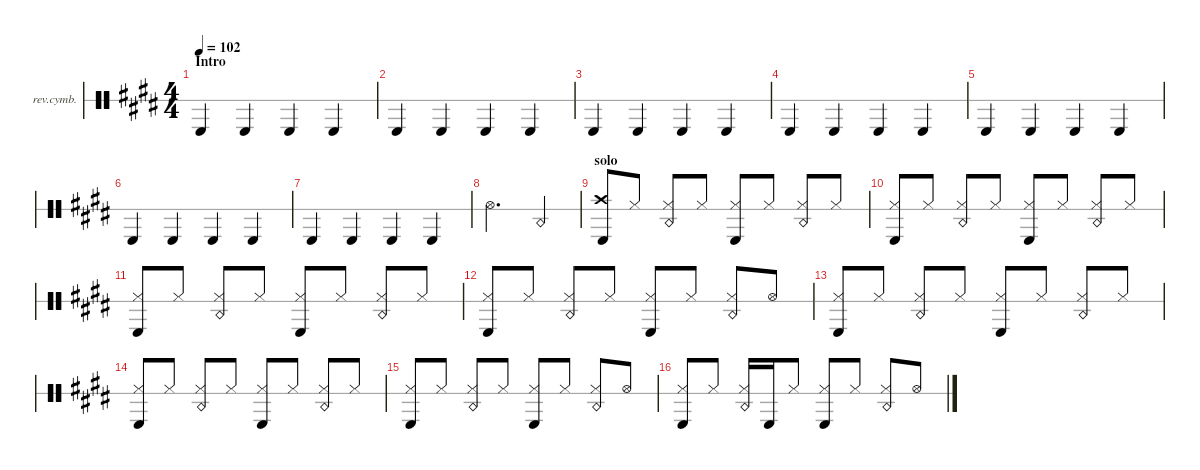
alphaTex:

\defaultSystemsLayout 4
\hideDynamics
\bracketExtendMode nobrackets
\firstSystemTrackNameOrientation horizontal
\otherSystemsTrackNameOrientation horizontal
\track ("Reverse Cymbal" "rev.cymb.") {defaultSystemsLayout 4 instrument percussion}
\staff {score 1}
\articulation defaults
\ts (4 4)
\beaming (8 2 2 2 2)
\section ("" "Intro")
\tempo 102
\clef neutral
\ks e "Kick (hit) 2"{acc forcenatural}.4{dy mf beam Up} "Kick (hit) 2"{acc forcenatural}.4{beam Up} "Kick (hit) 2"{acc forcenatural}.4{beam Up} "Kick (hit) 2"{acc forcenatural}.4{beam Up}
|
"Kick (hit) 2"{acc forcenatural}.4{beam Up} "Kick (hit) 2"{acc forcenatural}.4{beam Up} "Kick (hit) 2"{acc forcenatural}.4{beam Up} "Kick (hit) 2"{acc forcenatural}.4{beam Up} |
"Kick (hit) 2"{acc forcenatural}.4{beam Up} "Kick (hit) 2"{acc forcenatural}.4{beam Up} "Kick (hit) 2"{acc forcenatural}.4{beam Up} "Kick (hit) 2"{acc forcenatural}.4{beam Up} |
"Kick (hit) 2"{acc forcenatural}.4{beam Up} "Kick (hit) 2"{acc forcenatural}.4{beam Up} "Kick (hit) 2"{acc forcenatural}.4{beam Up} "Kick (hit) 2"{acc forcenatural}.4{beam Up} |
"Kick (hit) 2"{acc forcenatural}.4{beam Up} "Kick (hit) 2"{acc forcenatural}.4{beam Up} "Kick (hit) 2"{acc forcenatural}.4{beam Up} "Kick (hit) 2"{acc forcenatural}.4{beam Up} |
"Kick (hit) 2"{acc forcenatural}.4{beam Up} "Kick (hit) 2"{acc forcenatural}.4{beam Up} "Kick (hit) 2"{acc forcenatural}.4{beam Up} "Kick (hit) 2"{acc forcenatural}.4{beam Up} |
"Kick (hit) 2"{acc forcenatural}.4{beam Up} "Kick (hit) 2"{acc forcenatural}.4{beam Up} "Kick (hit) 2"{acc forcenatural}.4{beam Up} "Kick (hit) 2"{acc forcenatural}.4{beam Up} |
"Hi-Hat (open)"{acc forcenatural}.2{d dy f beam Down} "Snare (rim shot)"{acc forcenatural}.4{dy ff beam Up} |
\section ("" "solo")
("Kick (hit) 2"{acc forcenatural} "Crash high (hit)"{acc forcenatural}).8{dy mf beam Up} "Hi-Hat (closed)"{acc forcenatural}.8{beam Up} ("Hi-Hat (closed)"{acc forcenatural} "Snare (rim shot)"{acc forcenatural}).8{dy f beam Up} "Hi-Hat (closed)"{acc forcenatural}.8{dy mf beam Up} ("Kick (hit) 2"{acc forcenatural} "Hi-Hat (closed)"{acc forcenatural}).8{beam Up} "Hi-Hat (closed)"{acc forcenatural}.8{beam Up} ("Hi-Hat (closed)"{acc forcenatural} "Snare (rim shot)"{acc forcenatural}).8{dy f beam Up} "Hi-Hat (closed)"{acc forcenatural}.8{dy mf beam Up} |
("Kick (hit) 2"{acc forcenatural} "Hi-Hat (closed)"{acc forcenatural}).8{beam Up} "Hi-Hat (closed)"{acc forcenatural}.8{beam Up} ("Hi-Hat (closed)"{acc forcenatural} "Snare (rim shot)"{acc forcenatural}).8{dy f beam Up} "Hi-Hat (closed)"{acc forcenatural}.8{dy mf beam Up} ("Kick (hit) 2"{acc forcenatural} "Hi-Hat (closed)"{acc forcenatural}).8{beam Up} "Hi-Hat (closed)"{acc forcenatural}.8{beam Up} ("Hi-Hat (closed)"{acc forcenatural} "Snare (rim shot)"{acc forcenatural}).8{dy f beam Up} "Hi-Hat (closed)"{acc forcenatural}.8{dy mf beam Up} |
("Kick (hit) 2"{acc forcenatural} "Hi-Hat (closed)"{acc forcenatural}).8{beam Up} "Hi-Hat (closed)"{acc forcenatural}.8{beam Up} ("Hi-Hat (closed)"{acc forcenatural} "Snare (rim shot)"{acc forcenatural}).8{dy f beam Up} "Hi-Hat (closed)"{acc forcenatural}.8{dy mf beam Up} ("Kick (hit) 2"{acc forcenatural} "Hi-Hat (closed)"{acc forcenatural}).8{beam Up} "Hi-Hat (closed)"{acc forcenatural}.8{beam Up} ("Hi-Hat (closed)"{acc forcenatural} "Snare (rim shot)"{acc forcenatural}).8{dy f beam Up} "Hi-Hat (closed)"{acc forcenatural}.8{dy mf beam Up} |
("Kick (hit) 2"{acc forcenatural} "Hi-Hat (closed)"{acc forcenatural}).8{beam Up} "Hi-Hat (closed)"{acc forcenatural}.8{beam Up} ("Hi-Hat (closed)"{acc forcenatural} "Snare (rim shot)"{acc forcenatural}).8{dy f beam Up} "Hi-Hat (closed)"{acc forcenatural}.8{dy mf beam Up} ("Kick (hit) 2"{acc forcenatural} "Hi-Hat (closed)"{acc forcenatural}).8{beam Up} "Hi-Hat (closed)"{acc forcenatural}.8{beam Up} ("Hi-Hat (closed)"{acc forcenatural} "Snare (rim shot)"{acc forcenatural}).8{dy f beam Up} "Hi-Hat (open)"{acc forcenatural}.8{dy mf beam Up} |
("Kick (hit) 2"{acc forcenatural} "Hi-Hat (closed)"{acc forcenatural}).8{beam Up} "Hi-Hat (closed)"{acc forcenatural}.8{beam Up} ("Hi-Hat (closed)"{acc forcenatural} "Snare (rim shot)"{acc forcenatural}).8{dy f beam Up} "Hi-Hat (closed)"{acc forcenatural}.8{dy mf beam Up} ("Kick (hit) 2"{acc forcenatural} "Hi-Hat (closed)"{acc forcenatural}).8{beam Up} "Hi-Hat (closed)"{acc forcenatural}.8{beam Up} ("Hi-Hat (closed)"{acc forcenatural} "Snare (rim shot)"{acc forcenatural}).8{dy f beam Up} "Hi-Hat (closed)"{acc forcenatural}.8{dy mf beam Up} |
("Kick (hit) 2"{acc forcenatural} "Hi-Hat (closed)"{acc forcenatural}).8{beam Up} "Hi-Hat (closed)"{acc forcenatural}.8{beam Up} ("Hi-Hat (closed)"{acc forcenatural} "Snare (rim shot)"{acc forcenatural}).8{dy f beam Up} "Hi-Hat (closed)"{acc forcenatural}.8{dy mf beam Up} ("Kick (hit) 2"{acc forcenatural} "Hi-Hat (closed)"{acc forcenatural}).8{beam Up} "Hi-Hat (closed)"{acc forcenatural}.8{beam Up} ("Hi-Hat (closed)"{acc forcenatural} "Snare (rim shot)"{acc forcenatural}).8{dy f beam Up} "Hi-Hat (closed)"{acc forcenatural}.8{dy mf beam Up} |
("Kick (hit) 2"{acc forcenatural} "Hi-Hat (closed)"{acc forcenatural}).8{beam Up} "Hi-Hat (closed)"{acc forcenatural}.8{beam Up} ("Hi-Hat (closed)"{acc forcenatural} "Snare (rim shot)"{acc forcenatural}).8{dy f beam Up} "Hi-Hat (closed)"{acc forcenatural}.8{dy mf beam Up} ("Kick (hit) 2"{acc forcenatural} "Hi-Hat (closed)"{acc forcenatural}).8{beam Up} "Hi-Hat (closed)"{acc forcenatural}.8{beam Up} ("Hi-Hat (closed)"{acc forcenatural} "Snare (rim shot)"{acc forcenatural}).8{dy f beam Up} "Hi-Hat (open)"{acc forcenatural}.8{dy mf beam Up} |
("Kick (hit) 2"{acc forcenatural} "Hi-Hat (closed)"{acc forcenatural}).8{beam Up} "Hi-Hat (closed)"{acc forcenatural}.8{beam Up} ("Hi-Hat (closed)"{acc forcenatural} "Snare (rim shot)"{acc forcenatural}).16{dy f beam Up} "Kick (hit) 2"{acc forcenatural}.16{dy mf beam Up} "Hi-Hat (closed)"{acc forcenatural}.8{beam Up} ("Hi-Hat (closed)"{acc forcenatural} "Kick (hit) 2"{acc forcenatural}).8{beam Up} "Hi-Hat (closed)"{acc forcenatural}.8{beam Up} ("Hi-Hat (closed)"{acc forcenatural} "Snare (rim shot)"{acc forcenatural}).8{dy f beam Up} "Hi-Hat (open)"{acc forcenatural}.8{dy mf beam Up}
